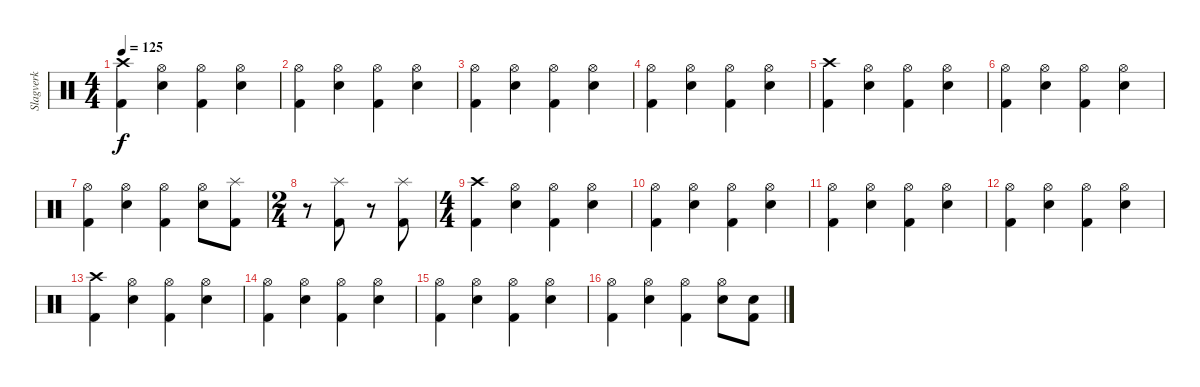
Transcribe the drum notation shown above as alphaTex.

\track ("Slagverk" "Slagverk") {instrument percussion}
\staff {score}
\articulation defaults
\ts (4 4)
\tempo 125
\clef neutral
\ks c
("Crash high (hit)" "Kick (hit) 2").4{dy f} ("Hi-Hat (open)" "Snare (hit) 2").4 ("Hi-Hat (open)" "Kick (hit) 2").4 ("Hi-Hat (open)" "Snare (hit) 2").4 |
("Hi-Hat (open)" "Kick (hit) 2").4 ("Hi-Hat (open)" "Snare (hit) 2").4 ("Hi-Hat (open)" "Kick (hit) 2").4 ("Hi-Hat (open)" "Snare (hit) 2").4 |
("Hi-Hat (open)" "Kick (hit) 2").4 ("Hi-Hat (open)" "Snare (hit) 2").4 ("Hi-Hat (open)" "Kick (hit) 2").4 ("Hi-Hat (open)" "Snare (hit) 2").4 |
("Hi-Hat (open)" "Kick (hit) 2").4 ("Hi-Hat (open)" "Snare (hit) 2").4 ("Hi-Hat (open)" "Kick (hit) 2").4 ("Hi-Hat (open)" "Snare (hit) 2").4 |
("Crash high (hit)" "Kick (hit) 2").4 ("Hi-Hat (open)" "Snare (hit) 2").4 ("Hi-Hat (open)" "Kick (hit) 2").4 ("Hi-Hat (open)" "Snare (hit) 2").4 |
("Hi-Hat (open)" "Kick (hit) 2").4 ("Hi-Hat (open)" "Snare (hit) 2").4 ("Hi-Hat (open)" "Kick (hit) 2").4 ("Hi-Hat (open)" "Snare (hit) 2").4 |
("Hi-Hat (open)" "Kick (hit) 2").4 ("Hi-Hat (open)" "Snare (hit) 2").4 ("Hi-Hat (open)" "Kick (hit) 2").4 ("Hi-Hat (open)" "Snare (hit) 2").8 ("Splash (hit)" "Kick (hit) 2").8 |
\ts (2 4)
r.8 ("Splash (hit)" "Kick (hit) 2").8 r.8 ("Splash (hit)" "Kick (hit) 2").8 |
\ts (4 4)
("Crash high (hit)" "Kick (hit) 2").4 ("Hi-Hat (open)" "Snare (hit) 2").4 ("Hi-Hat (open)" "Kick (hit) 2").4 ("Hi-Hat (open)" "Snare (hit) 2").4 |
("Hi-Hat (open)" "Kick (hit) 2").4 ("Hi-Hat (open)" "Snare (hit) 2").4 ("Hi-Hat (open)" "Kick (hit) 2").4 ("Hi-Hat (open)" "Snare (hit) 2").4 |
("Hi-Hat (open)" "Kick (hit) 2").4 ("Hi-Hat (open)" "Snare (hit) 2").4 ("Hi-Hat (open)" "Kick (hit) 2").4 ("Hi-Hat (open)" "Snare (hit) 2").4 |
("Hi-Hat (open)" "Kick (hit) 2").4 ("Hi-Hat (open)" "Snare (hit) 2").4 ("Hi-Hat (open)" "Kick (hit) 2").4 ("Hi-Hat (open)" "Snare (hit) 2").4 |
("Crash high (hit)" "Kick (hit) 2").4 ("Hi-Hat (open)" "Snare (hit) 2").4 ("Hi-Hat (open)" "Kick (hit) 2").4 ("Hi-Hat (open)" "Snare (hit) 2").4 |
("Hi-Hat (open)" "Kick (hit) 2").4 ("Hi-Hat (open)" "Snare (hit) 2").4 ("Hi-Hat (open)" "Kick (hit) 2").4 ("Hi-Hat (open)" "Snare (hit) 2").4 |
("Hi-Hat (open)" "Kick (hit) 2").4 ("Hi-Hat (open)" "Snare (hit) 2").4 ("Hi-Hat (open)" "Kick (hit) 2").4 ("Hi-Hat (open)" "Snare (hit) 2").4 |
("Hi-Hat (open)" "Kick (hit) 2").4 ("Hi-Hat (open)" "Snare (hit) 2").4 ("Hi-Hat (open)" "Kick (hit) 2").4 ("Hi-Hat (open)" "Snare (hit) 2").8 ("Snare (hit) 2" "Kick (hit) 2").8
